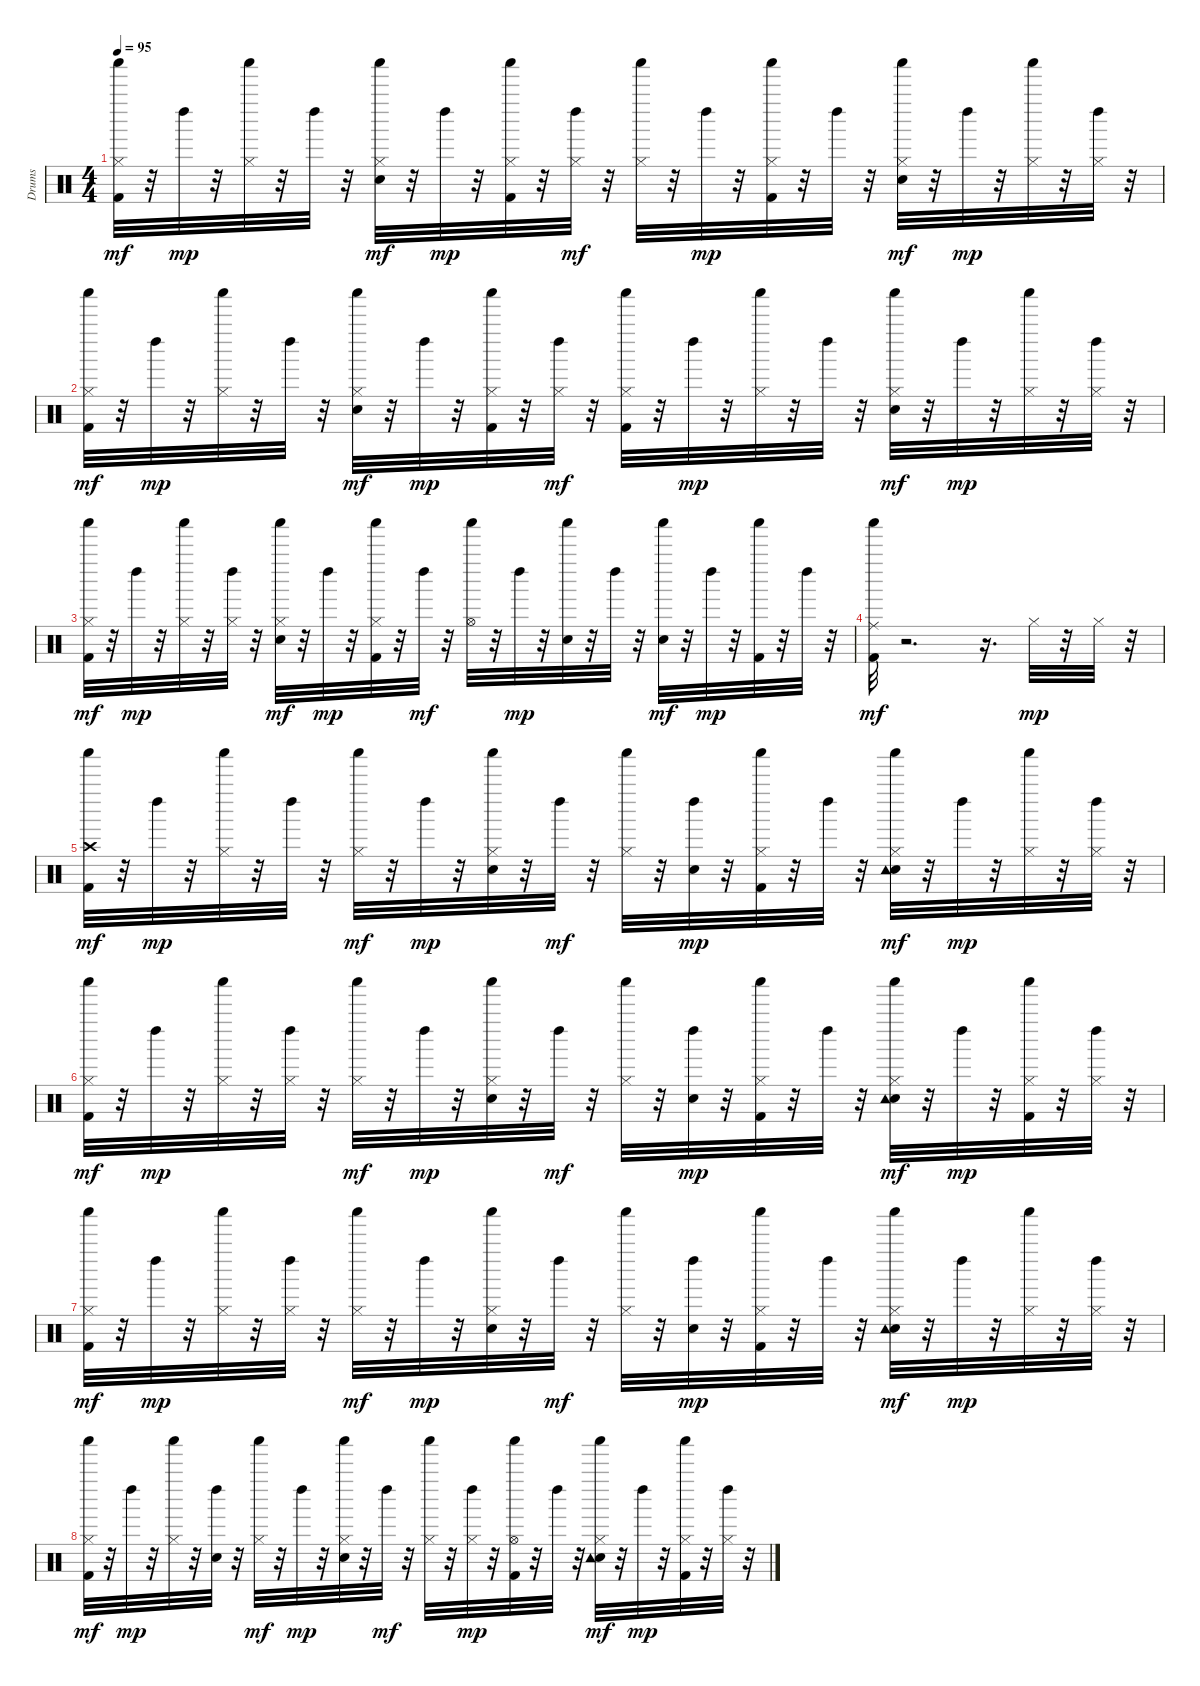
\track ("Drums" "Drums") {instrument percussion}
\staff {score}
\articulation defaults
\ts (4 4)
\tempo 95
\clef neutral
\ks c
("Kick (hit) 2" "Hi-Hat (closed)" "Shaker (hit)").32{dy mf} r.32 "Left Maraca (hit)".32{dy mp} r.32 ("Hi-Hat (closed)" "Shaker (hit)").32 r.32 "Left Maraca (hit)".32 r.32 ("Electric Snare (hit)" "Hi-Hat (closed)" "Shaker (hit)").32{dy mf} r.32 "Left Maraca (hit)".32{dy mp} r.32 ("Kick (hit) 2" "Hi-Hat (closed)" "Shaker (hit)").32 r.32 ("Hi-Hat (closed)" "Left Maraca (hit)").32{dy mf} r.32 ("Hi-Hat (closed)" "Shaker (hit)").32 r.32 "Left Maraca (hit)".32{dy mp} r.32 ("Kick (hit) 2" "Hi-Hat (closed)" "Shaker (hit)").32 r.32 "Left Maraca (hit)".32 r.32 ("Electric Snare (hit)" "Hi-Hat (closed)" "Shaker (hit)").32{dy mf} r.32 "Left Maraca (hit)".32{dy mp} r.32 ("Hi-Hat (closed)" "Shaker (hit)").32 r.32 ("Hi-Hat (closed)" "Left Maraca (hit)").32 r.32 |
("Kick (hit) 2" "Hi-Hat (closed)" "Shaker (hit)").32{dy mf} r.32 "Left Maraca (hit)".32{dy mp} r.32 ("Hi-Hat (closed)" "Shaker (hit)").32 r.32 "Left Maraca (hit)".32 r.32 ("Electric Snare (hit)" "Hi-Hat (closed)" "Shaker (hit)").32{dy mf} r.32 "Left Maraca (hit)".32{dy mp} r.32 ("Kick (hit) 2" "Hi-Hat (closed)" "Shaker (hit)").32 r.32 ("Hi-Hat (closed)" "Left Maraca (hit)").32{dy mf} r.32 ("Kick (hit) 2" "Hi-Hat (closed)" "Shaker (hit)").32 r.32 "Left Maraca (hit)".32{dy mp} r.32 ("Hi-Hat (closed)" "Shaker (hit)").32 r.32 "Left Maraca (hit)".32 r.32 ("Electric Snare (hit)" "Hi-Hat (closed)" "Shaker (hit)").32{dy mf} r.32 "Left Maraca (hit)".32{dy mp} r.32 ("Hi-Hat (closed)" "Shaker (hit)").32 r.32 ("Hi-Hat (closed)" "Left Maraca (hit)").32 r.32 |
("Kick (hit) 2" "Hi-Hat (closed)" "Shaker (hit)").32{dy mf} r.32 "Left Maraca (hit)".32{dy mp} r.32 ("Hi-Hat (closed)" "Shaker (hit)").32 r.32 ("Hi-Hat (closed)" "Left Maraca (hit)").32 r.32 ("Electric Snare (hit)" "Hi-Hat (closed)" "Shaker (hit)").32{dy mf} r.32 "Left Maraca (hit)".32{dy mp} r.32 ("Kick (hit) 2" "Hi-Hat (closed)" "Shaker (hit)").32 r.32 "Left Maraca (hit)".32{dy mf} r.32 ("Hi-Hat (open)" "Shaker (hit)").32 r.32 "Left Maraca (hit)".32{dy mp} r.32 ("Electric Snare (hit)" "Shaker (hit)").32 r.32 "Left Maraca (hit)".32 r.32 ("Electric Snare (hit)" "Shaker (hit)").32{dy mf} r.32 "Left Maraca (hit)".32{dy mp} r.32 ("Kick (hit) 2" "Shaker (hit)").32 r.32 "Left Maraca (hit)".32 r.32 |
("Kick (hit) 2" "Ride (middle)" "Shaker (hit)").32{dy mf} r.2{d} r.16{d} "Hi-Hat (closed)".32{dy mp} r.32 "Hi-Hat (closed)".32 r.32 |
("Kick (hit) 2" "Crash high (hit)" "Shaker (hit)").32{dy mf} r.32 "Left Maraca (hit)".32{dy mp} r.32 ("Hi-Hat (closed)" "Shaker (hit)").32 r.32 "Left Maraca (hit)".32 r.32 ("Hi-Hat (closed)" "Shaker (hit)").32{dy mf} r.32 "Left Maraca (hit)".32{dy mp} r.32 ("Electric Snare (hit)" "Hi-Hat (closed)" "Shaker (hit)").32 r.32 "Left Maraca (hit)".32{dy mf} r.32 ("Hi-Hat (closed)" "Shaker (hit)").32 r.32 ("Electric Snare (hit)" "Left Maraca (hit)").32{dy mp} r.32 ("Kick (hit) 2" "Hi-Hat (closed)" "Shaker (hit)").32 r.32 "Left Maraca (hit)".32 r.32 ("Electric Snare (hit)" "Hi-Hat (closed)" "Tambourine (hit)" "Shaker (hit)").32{dy mf} r.32 "Left Maraca (hit)".32{dy mp} r.32 ("Hi-Hat (closed)" "Shaker (hit)").32 r.32 ("Hi-Hat (closed)" "Left Maraca (hit)").32 r.32 |
("Kick (hit) 2" "Hi-Hat (closed)" "Shaker (hit)").32{dy mf} r.32 "Left Maraca (hit)".32{dy mp} r.32 ("Hi-Hat (closed)" "Shaker (hit)").32 r.32 ("Hi-Hat (closed)" "Left Maraca (hit)").32 r.32 ("Hi-Hat (closed)" "Shaker (hit)").32{dy mf} r.32 "Left Maraca (hit)".32{dy mp} r.32 ("Electric Snare (hit)" "Hi-Hat (closed)" "Shaker (hit)").32 r.32 "Left Maraca (hit)".32{dy mf} r.32 ("Hi-Hat (closed)" "Shaker (hit)").32 r.32 ("Electric Snare (hit)" "Left Maraca (hit)").32{dy mp} r.32 ("Kick (hit) 2" "Hi-Hat (closed)" "Shaker (hit)").32 r.32 "Left Maraca (hit)".32 r.32 ("Electric Snare (hit)" "Hi-Hat (closed)" "Tambourine (hit)" "Shaker (hit)").32{dy mf} r.32 "Left Maraca (hit)".32{dy mp} r.32 ("Kick (hit) 2" "Hi-Hat (closed)" "Shaker (hit)").32 r.32 ("Hi-Hat (closed)" "Left Maraca (hit)").32 r.32 |
("Kick (hit) 2" "Hi-Hat (closed)" "Shaker (hit)").32{dy mf} r.32 "Left Maraca (hit)".32{dy mp} r.32 ("Hi-Hat (closed)" "Shaker (hit)").32 r.32 ("Hi-Hat (closed)" "Left Maraca (hit)").32 r.32 ("Hi-Hat (closed)" "Shaker (hit)").32{dy mf} r.32 "Left Maraca (hit)".32{dy mp} r.32 ("Electric Snare (hit)" "Hi-Hat (closed)" "Shaker (hit)").32 r.32 "Left Maraca (hit)".32{dy mf} r.32 ("Hi-Hat (closed)" "Shaker (hit)").32 r.32 ("Electric Snare (hit)" "Left Maraca (hit)").32{dy mp} r.32 ("Kick (hit) 2" "Hi-Hat (closed)" "Shaker (hit)").32 r.32 "Left Maraca (hit)".32 r.32 ("Electric Snare (hit)" "Hi-Hat (closed)" "Tambourine (hit)" "Shaker (hit)").32{dy mf} r.32 "Left Maraca (hit)".32{dy mp} r.32 ("Hi-Hat (closed)" "Shaker (hit)").32 r.32 ("Hi-Hat (closed)" "Left Maraca (hit)").32 r.32 |
("Kick (hit) 2" "Hi-Hat (closed)" "Shaker (hit)").32{dy mf} r.32 "Left Maraca (hit)".32{dy mp} r.32 ("Hi-Hat (closed)" "Shaker (hit)").32 r.32 ("Electric Snare (hit)" "Left Maraca (hit)").32 r.32 ("Hi-Hat (closed)" "Shaker (hit)").32{dy mf} r.32 "Left Maraca (hit)".32{dy mp} r.32 ("Electric Snare (hit)" "Hi-Hat (closed)" "Shaker (hit)").32 r.32 "Left Maraca (hit)".32{dy mf} r.32 ("Hi-Hat (closed)" "Shaker (hit)").32 r.32 ("Hi-Hat (closed)" "Left Maraca (hit)").32{dy mp} r.32 ("Kick (hit) 2" "Hi-Hat (open)" "Shaker (hit)").32 r.32 "Left Maraca (hit)".32 r.32 ("Electric Snare (hit)" "Hi-Hat (closed)" "Tambourine (hit)" "Shaker (hit)").32{dy mf} r.32 "Left Maraca (hit)".32{dy mp} r.32 ("Kick (hit) 2" "Hi-Hat (closed)" "Shaker (hit)").32 r.32 ("Hi-Hat (closed)" "Left Maraca (hit)").32 r.32
